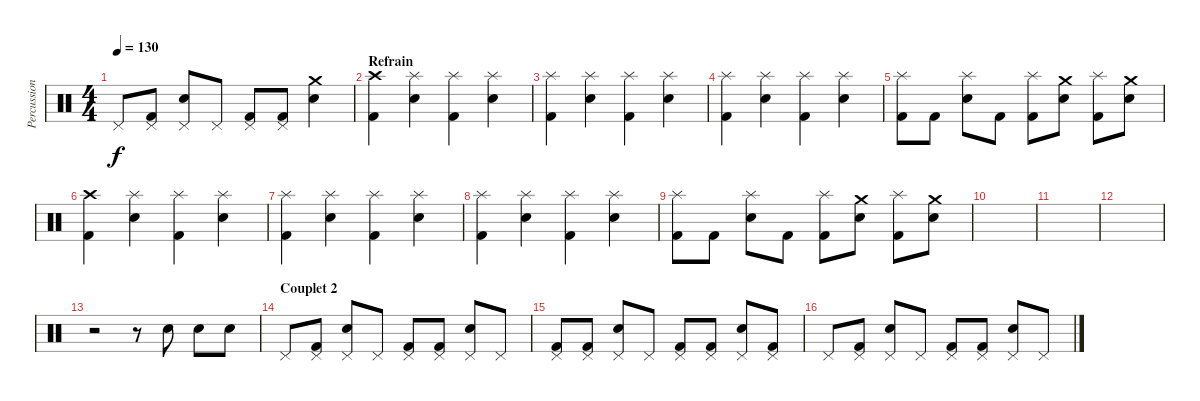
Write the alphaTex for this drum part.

\track ("Percussions" "Percussion") {instrument percussion}
\staff {score}
\articulation defaults
\ts (4 4)
\tempo 130
\clef neutral
\ks c "Pedal Hi-Hat (hit)".8{dy f}
("Pedal Hi-Hat (hit)" "Kick (hit) 2").8 ("Pedal Hi-Hat (hit)" "Electric Snare (hit)").8 "Pedal Hi-Hat (hit)".8 ("Pedal Hi-Hat (hit)" "Kick (hit) 2").8 ("Pedal Hi-Hat (hit)" "Kick (hit) 2").8 ("Crash medium (hit)" "Electric Snare (hit)").4 |
\section ("" "Refrain")
("Crash high (hit)" "Kick (hit) 2").4 ("Splash (hit)" "Electric Snare (hit)").4 ("Splash (hit)" "Kick (hit) 2").4 ("Splash (hit)" "Electric Snare (hit)").4 |
("Splash (hit)" "Kick (hit) 2").4 ("Splash (hit)" "Electric Snare (hit)").4 ("Splash (hit)" "Kick (hit) 2").4 ("Splash (hit)" "Electric Snare (hit)").4 |
("Splash (hit)" "Kick (hit) 2").4 ("Splash (hit)" "Electric Snare (hit)").4 ("Splash (hit)" "Kick (hit) 2").4 ("Splash (hit)" "Electric Snare (hit)").4 |
("Splash (hit)" "Kick (hit) 2").8 "Kick (hit) 2".8 ("Splash (hit)" "Electric Snare (hit)").8 "Kick (hit) 2".8 ("Splash (hit)" "Kick (hit) 2").8 ("Crash medium (hit)" "Electric Snare (hit)").8 ("Splash (hit)" "Kick (hit) 2").8 ("Crash medium (hit)" "Electric Snare (hit)").8 |
("Crash high (hit)" "Kick (hit) 2").4 ("Splash (hit)" "Electric Snare (hit)").4 ("Splash (hit)" "Kick (hit) 2").4 ("Splash (hit)" "Electric Snare (hit)").4 |
("Splash (hit)" "Kick (hit) 2").4 ("Splash (hit)" "Electric Snare (hit)").4 ("Splash (hit)" "Kick (hit) 2").4 ("Splash (hit)" "Electric Snare (hit)").4 |
("Splash (hit)" "Kick (hit) 2").4 ("Splash (hit)" "Electric Snare (hit)").4 ("Splash (hit)" "Kick (hit) 2").4 ("Splash (hit)" "Electric Snare (hit)").4 |
("Splash (hit)" "Kick (hit) 2").8 "Kick (hit) 2".8 ("Splash (hit)" "Electric Snare (hit)").8 "Kick (hit) 2".8 ("Splash (hit)" "Kick (hit) 2").8 ("Crash medium (hit)" "Electric Snare (hit)").8 ("Splash (hit)" "Kick (hit) 2").8 ("Crash medium (hit)" "Electric Snare (hit)").8 |
|
|
|
r.2 r.8 "Electric Snare (hit)".8 "Electric Snare (hit)".8 "Electric Snare (hit)".8 |
\section ("" "Couplet 2")
"Pedal Hi-Hat (hit)".8 ("Pedal Hi-Hat (hit)" "Kick (hit) 2").8 ("Pedal Hi-Hat (hit)" "Electric Snare (hit)").8 "Pedal Hi-Hat (hit)".8 ("Pedal Hi-Hat (hit)" "Kick (hit) 2").8 ("Pedal Hi-Hat (hit)" "Kick (hit) 2").8 ("Pedal Hi-Hat (hit)" "Electric Snare (hit)").8 "Pedal Hi-Hat (hit)".8 |
("Pedal Hi-Hat (hit)" "Kick (hit) 2").8 ("Pedal Hi-Hat (hit)" "Kick (hit) 2").8 ("Pedal Hi-Hat (hit)" "Electric Snare (hit)").8 "Pedal Hi-Hat (hit)".8 ("Pedal Hi-Hat (hit)" "Kick (hit) 2").8 ("Pedal Hi-Hat (hit)" "Kick (hit) 2").8 ("Pedal Hi-Hat (hit)" "Electric Snare (hit)").8 ("Pedal Hi-Hat (hit)" "Kick (hit) 2").8 |
"Pedal Hi-Hat (hit)".8 ("Pedal Hi-Hat (hit)" "Kick (hit) 2").8 ("Pedal Hi-Hat (hit)" "Electric Snare (hit)").8 "Pedal Hi-Hat (hit)".8 ("Pedal Hi-Hat (hit)" "Kick (hit) 2").8 ("Pedal Hi-Hat (hit)" "Kick (hit) 2").8 ("Pedal Hi-Hat (hit)" "Electric Snare (hit)").8 "Pedal Hi-Hat (hit)".8
